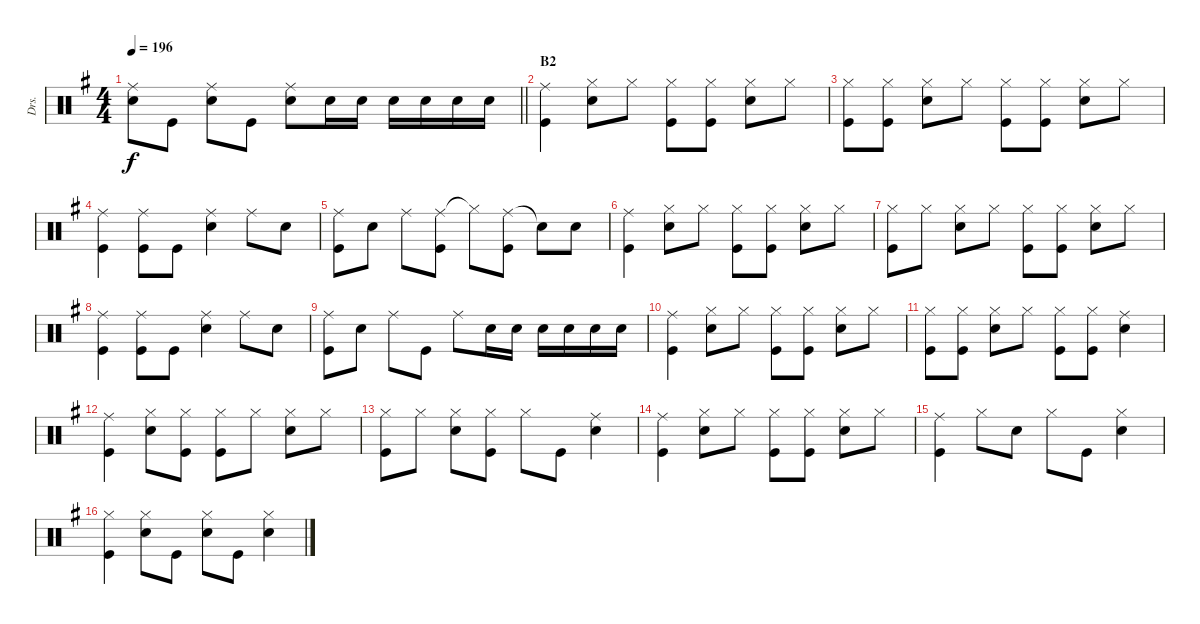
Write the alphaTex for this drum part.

\track ("Drs." "Drs.") {instrument percussion}
\staff {score}
\articulation defaults
\ts (4 4)
\tempo 196
\clef neutral
\barLineRight lightlight
\ks g
("Ride (middle)" "Snare (hit) 2").8{dy f} "Kick (hit)".8 ("Ride (middle)" "Snare (hit) 2").8 "Kick (hit)".8 ("Ride (middle)" "Snare (hit) 2").8 "Snare (hit) 2".16 "Snare (hit) 2".16 "Snare (hit) 2".16 "Snare (hit) 2".16 "Snare (hit) 2".16 "Snare (hit) 2".16 |
\section ("" "B2")
("Ride (middle)" "Kick (hit)").4 ("Hi-Hat (closed)" "Snare (hit) 2").8 "Hi-Hat (closed)".8 ("Hi-Hat (closed)" "Kick (hit)").8 ("Hi-Hat (closed)" "Kick (hit)").8 ("Hi-Hat (closed)" "Snare (hit) 2").8 "Hi-Hat (closed)".8 |
("Hi-Hat (closed)" "Kick (hit)").8 ("Hi-Hat (closed)" "Kick (hit)").8 ("Hi-Hat (closed)" "Snare (hit) 2").8 "Hi-Hat (closed)".8 ("Hi-Hat (closed)" "Kick (hit)").8 ("Hi-Hat (closed)" "Kick (hit)").8 ("Hi-Hat (closed)" "Snare (hit) 2").8 "Hi-Hat (closed)".8 |
("Ride (middle)" "Kick (hit)").4 ("Ride (middle)" "Kick (hit)").8 "Kick (hit)".8 ("Ride (middle)" "Snare (hit) 2").4 "Ride (middle)".8 "Snare (hit) 2".8 |
("Ride (middle)" "Kick (hit)").8 "Snare (hit) 2".8 "Ride (middle)".8 ("Ride (middle)" "Kick (hit)").8 "Hi-Hat (closed)"{t}.8 ("Ride (middle)" "Kick (hit)").8 "Snare (hit)"{t}.8 "Snare (hit) 2".8 |
("Ride (middle)" "Kick (hit)").4 ("Hi-Hat (closed)" "Snare (hit) 2").8 "Hi-Hat (closed)".8 ("Hi-Hat (closed)" "Kick (hit)").8 ("Hi-Hat (closed)" "Kick (hit)").8 ("Hi-Hat (closed)" "Snare (hit) 2").8 "Hi-Hat (closed)".8 |
("Hi-Hat (closed)" "Kick (hit)").8 "Hi-Hat (closed)".8 ("Hi-Hat (closed)" "Snare (hit) 2").8 "Hi-Hat (closed)".8 ("Hi-Hat (closed)" "Kick (hit)").8 ("Hi-Hat (closed)" "Kick (hit)").8 ("Hi-Hat (closed)" "Snare (hit) 2").8 "Hi-Hat (closed)".8 |
("Ride (middle)" "Kick (hit)").4 ("Ride (middle)" "Kick (hit)").8 "Kick (hit)".8 ("Ride (middle)" "Snare (hit) 2").4 "Ride (middle)".8 "Snare (hit) 2".8 |
("Ride (middle)" "Kick (hit)").8 "Snare (hit) 2".8 "Ride (middle)".8 "Kick (hit)".8 "Ride (middle)".8 "Snare (hit) 2".16 "Snare (hit) 2".16 "Snare (hit) 2".16 "Snare (hit) 2".16 "Snare (hit) 2".16 "Snare (hit) 2".16 |
("Ride (middle)" "Kick (hit)").4 ("Hi-Hat (closed)" "Snare (hit) 2").8 "Hi-Hat (closed)".8 ("Hi-Hat (closed)" "Kick (hit)").8 ("Hi-Hat (closed)" "Kick (hit)").8 ("Hi-Hat (closed)" "Snare (hit) 2").8 "Hi-Hat (closed)".8 |
("Hi-Hat (closed)" "Kick (hit)").8 ("Hi-Hat (closed)" "Kick (hit)").8 ("Hi-Hat (closed)" "Snare (hit) 2").8 "Hi-Hat (closed)".8 ("Hi-Hat (closed)" "Kick (hit)").8 ("Hi-Hat (closed)" "Kick (hit)").8 ("Ride (middle)" "Snare (hit) 2").4 |
("Ride (middle)" "Kick (hit)").4 ("Hi-Hat (closed)" "Snare (hit) 2").8 ("Hi-Hat (closed)" "Kick (hit)").8 ("Hi-Hat (closed)" "Kick (hit)").8 "Hi-Hat (closed)".8 ("Hi-Hat (closed)" "Snare (hit) 2").8 "Hi-Hat (closed)".8 |
("Hi-Hat (closed)" "Kick (hit)").8 "Hi-Hat (closed)".8 ("Hi-Hat (closed)" "Snare (hit) 2").8 ("Hi-Hat (closed)" "Kick (hit)").8 "Hi-Hat (closed)".8 "Kick (hit)".8 ("Ride (middle)" "Snare (hit) 2").4 |
("Ride (middle)" "Kick (hit)").4 ("Hi-Hat (closed)" "Snare (hit) 2").8 "Hi-Hat (closed)".8 ("Hi-Hat (closed)" "Kick (hit)").8 ("Hi-Hat (closed)" "Kick (hit)").8 ("Hi-Hat (closed)" "Snare (hit) 2").8 "Hi-Hat (closed)".8 |
("Ride (middle)" "Kick (hit)").4 "Hi-Hat (closed)".8 "Snare (hit) 2".8 "Hi-Hat (closed)".8 "Kick (hit)".8 ("Hi-Hat (closed)" "Snare (hit) 2").4 |
("Hi-Hat (closed)" "Kick (hit)").4 ("Hi-Hat (closed)" "Snare (hit) 2").8 "Kick (hit)".8 ("Hi-Hat (closed)" "Snare (hit) 2").8 "Kick (hit)".8 ("Hi-Hat (closed)" "Snare (hit) 2").4
